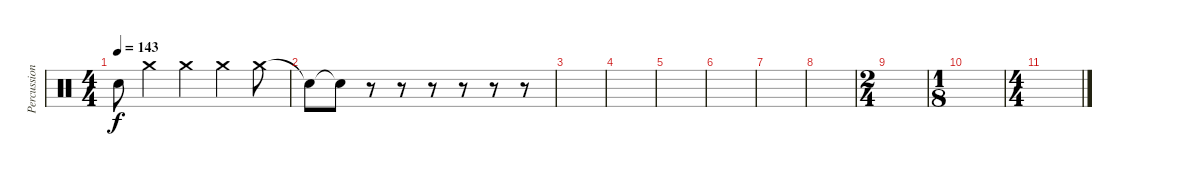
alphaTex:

\track ("Percussion2" "Percussion") {instrument percussion}
\staff {score}
\articulation defaults
\ts (4 4)
\tempo 143
\clef neutral
\ks c "Snare (hit)"{t}.8{dy f} "Crash medium (hit)".4 "Crash medium (hit)".4 "Crash medium (hit)".4 "Crash medium (hit)".8
|
"Snare (hit)"{t}.8 "Snare (hit)"{t}.8 r.8 r.8 r.8 r.8 r.8 r.8 |
|
|
|
|
|
|
\ts (2 4)
|
\ts (1 8)
|
\ts (4 4)
